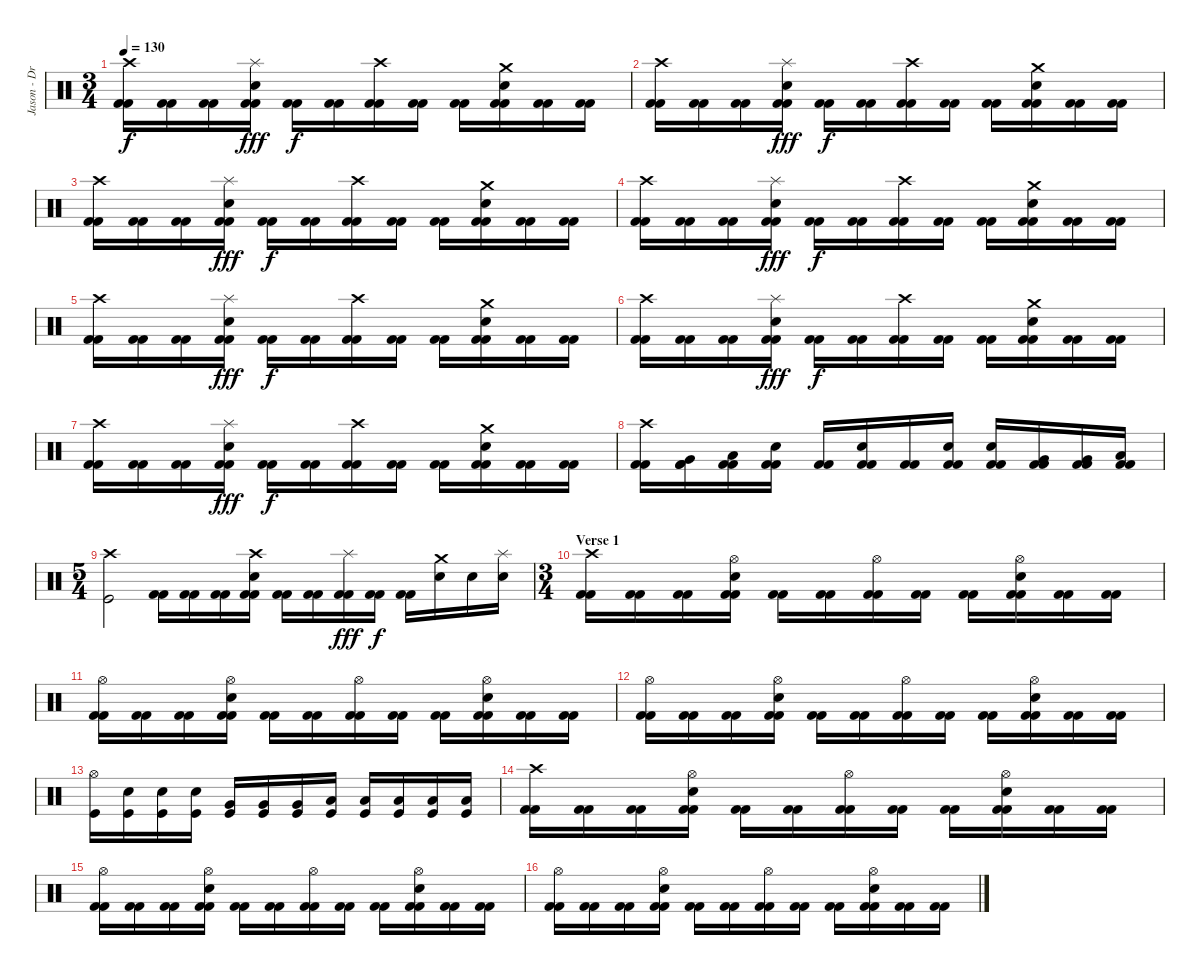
\track ("Jason - Drums" "Jason - Dr") {instrument percussion}
\staff {score}
\articulation defaults
\ts (3 4)
\tempo 130
\clef neutral
\ks c
("Crash high (hit)" "Kick (hit) 2" "Kick (hit) 2").16{dy f} ("Kick (hit) 2" "Kick (hit) 2").16 ("Kick (hit) 2" "Kick (hit) 2").16 ("Splash (hit)" "Electric Snare (hit)" "Kick (hit) 2" "Kick (hit) 2").16{dy fff} ("Kick (hit) 2" "Kick (hit) 2").16{dy f} ("Kick (hit) 2" "Kick (hit) 2").16 ("Crash high (hit)" "Kick (hit) 2" "Kick (hit) 2").16 ("Kick (hit) 2" "Kick (hit) 2").16 ("Kick (hit) 2" "Kick (hit) 2").16 ("Crash medium (hit)" "Electric Snare (hit)" "Kick (hit) 2" "Kick (hit) 2").16 ("Kick (hit) 2" "Kick (hit) 2").16 ("Kick (hit) 2" "Kick (hit) 2").16 |
("Crash high (hit)" "Kick (hit) 2" "Kick (hit) 2").16 ("Kick (hit) 2" "Kick (hit) 2").16 ("Kick (hit) 2" "Kick (hit) 2").16 ("Splash (hit)" "Electric Snare (hit)" "Kick (hit) 2" "Kick (hit) 2").16{dy fff} ("Kick (hit) 2" "Kick (hit) 2").16{dy f} ("Kick (hit) 2" "Kick (hit) 2").16 ("Crash high (hit)" "Kick (hit) 2" "Kick (hit) 2").16 ("Kick (hit) 2" "Kick (hit) 2").16 ("Kick (hit) 2" "Kick (hit) 2").16 ("Crash medium (hit)" "Electric Snare (hit)" "Kick (hit) 2" "Kick (hit) 2").16 ("Kick (hit) 2" "Kick (hit) 2").16 ("Kick (hit) 2" "Kick (hit) 2").16 |
("Crash high (hit)" "Kick (hit) 2" "Kick (hit) 2").16 ("Kick (hit) 2" "Kick (hit) 2").16 ("Kick (hit) 2" "Kick (hit) 2").16 ("Splash (hit)" "Electric Snare (hit)" "Kick (hit) 2" "Kick (hit) 2").16{dy fff} ("Kick (hit) 2" "Kick (hit) 2").16{dy f} ("Kick (hit) 2" "Kick (hit) 2").16 ("Crash high (hit)" "Kick (hit) 2" "Kick (hit) 2").16 ("Kick (hit) 2" "Kick (hit) 2").16 ("Kick (hit) 2" "Kick (hit) 2").16 ("Crash medium (hit)" "Electric Snare (hit)" "Kick (hit) 2" "Kick (hit) 2").16 ("Kick (hit) 2" "Kick (hit) 2").16 ("Kick (hit) 2" "Kick (hit) 2").16 |
("Crash high (hit)" "Kick (hit) 2" "Kick (hit) 2").16 ("Kick (hit) 2" "Kick (hit) 2").16 ("Kick (hit) 2" "Kick (hit) 2").16 ("Splash (hit)" "Electric Snare (hit)" "Kick (hit) 2" "Kick (hit) 2").16{dy fff} ("Kick (hit) 2" "Kick (hit) 2").16{dy f} ("Kick (hit) 2" "Kick (hit) 2").16 ("Crash high (hit)" "Kick (hit) 2" "Kick (hit) 2").16 ("Kick (hit) 2" "Kick (hit) 2").16 ("Kick (hit) 2" "Kick (hit) 2").16 ("Crash medium (hit)" "Electric Snare (hit)" "Kick (hit) 2" "Kick (hit) 2").16 ("Kick (hit) 2" "Kick (hit) 2").16 ("Kick (hit) 2" "Kick (hit) 2").16 |
("Crash high (hit)" "Kick (hit) 2" "Kick (hit) 2").16 ("Kick (hit) 2" "Kick (hit) 2").16 ("Kick (hit) 2" "Kick (hit) 2").16 ("Splash (hit)" "Electric Snare (hit)" "Kick (hit) 2" "Kick (hit) 2").16{dy fff} ("Kick (hit) 2" "Kick (hit) 2").16{dy f} ("Kick (hit) 2" "Kick (hit) 2").16 ("Crash high (hit)" "Kick (hit) 2" "Kick (hit) 2").16 ("Kick (hit) 2" "Kick (hit) 2").16 ("Kick (hit) 2" "Kick (hit) 2").16 ("Crash medium (hit)" "Electric Snare (hit)" "Kick (hit) 2" "Kick (hit) 2").16 ("Kick (hit) 2" "Kick (hit) 2").16 ("Kick (hit) 2" "Kick (hit) 2").16 |
("Crash high (hit)" "Kick (hit) 2" "Kick (hit) 2").16 ("Kick (hit) 2" "Kick (hit) 2").16 ("Kick (hit) 2" "Kick (hit) 2").16 ("Splash (hit)" "Electric Snare (hit)" "Kick (hit) 2" "Kick (hit) 2").16{dy fff} ("Kick (hit) 2" "Kick (hit) 2").16{dy f} ("Kick (hit) 2" "Kick (hit) 2").16 ("Crash high (hit)" "Kick (hit) 2" "Kick (hit) 2").16 ("Kick (hit) 2" "Kick (hit) 2").16 ("Kick (hit) 2" "Kick (hit) 2").16 ("Crash medium (hit)" "Electric Snare (hit)" "Kick (hit) 2" "Kick (hit) 2").16 ("Kick (hit) 2" "Kick (hit) 2").16 ("Kick (hit) 2" "Kick (hit) 2").16 |
("Crash high (hit)" "Kick (hit) 2" "Kick (hit) 2").16 ("Kick (hit) 2" "Kick (hit) 2").16 ("Kick (hit) 2" "Kick (hit) 2").16 ("Splash (hit)" "Electric Snare (hit)" "Kick (hit) 2" "Kick (hit) 2").16{dy fff} ("Kick (hit) 2" "Kick (hit) 2").16{dy f} ("Kick (hit) 2" "Kick (hit) 2").16 ("Crash high (hit)" "Kick (hit) 2" "Kick (hit) 2").16 ("Kick (hit) 2" "Kick (hit) 2").16 ("Kick (hit) 2" "Kick (hit) 2").16 ("Crash medium (hit)" "Electric Snare (hit)" "Kick (hit) 2" "Kick (hit) 2").16 ("Kick (hit) 2" "Kick (hit) 2").16 ("Kick (hit) 2" "Kick (hit) 2").16 |
("Crash high (hit)" "Kick (hit) 2" "Kick (hit) 2").16 ("Very Low Tom (hit)" "Kick (hit) 2" "Kick (hit) 2").16 ("Low Floor Tom (hit)" "Kick (hit) 2" "Kick (hit) 2").16 ("Electric Snare (hit)" "Kick (hit) 2" "Kick (hit) 2").16 ("Kick (hit) 2" "Kick (hit) 2").16 ("Electric Snare (hit)" "Kick (hit) 2" "Kick (hit) 2").16 ("Kick (hit) 2" "Kick (hit) 2").16 ("Electric Snare (hit)" "Kick (hit) 2" "Kick (hit) 2").16 ("Electric Snare (hit)" "Kick (hit) 2" "Kick (hit) 2").16 ("Very Low Tom (hit)" "Kick (hit) 2" "Kick (hit) 2").16 ("Very Low Tom (hit)" "Kick (hit) 2" "Kick (hit) 2").16 ("Low Floor Tom (hit)" "Kick (hit) 2" "Kick (hit) 2").16 |
\ts (5 4)
("Crash high (hit)" "Kick (hit)").2 ("Kick (hit) 2" "Kick (hit) 2").16 ("Kick (hit) 2" "Kick (hit) 2").16 ("Kick (hit) 2" "Kick (hit) 2").16 ("Crash high (hit)" "Electric Snare (hit)" "Kick (hit) 2" "Kick (hit) 2").16 ("Kick (hit) 2" "Kick (hit) 2").16 ("Kick (hit) 2" "Kick (hit) 2").16 ("Splash (hit)" "Kick (hit) 2" "Kick (hit) 2").16{dy fff} ("Kick (hit) 2" "Kick (hit) 2").16{dy f} ("Kick (hit) 2" "Kick (hit) 2").16 ("Crash medium (hit)" "Electric Snare (hit)").16 "Electric Snare (hit)".16 ("Splash (hit)" "Electric Snare (hit)").16 |
\ts (3 4)
\section ("" "Verse 1")
("Crash high (hit)" "Kick (hit) 2" "Kick (hit) 2").16 ("Kick (hit) 2" "Kick (hit) 2").16 ("Kick (hit) 2" "Kick (hit) 2").16 ("Hi-Hat (open)" "Electric Snare (hit)" "Kick (hit) 2" "Kick (hit) 2").16 ("Kick (hit) 2" "Kick (hit) 2").16 ("Kick (hit) 2" "Kick (hit) 2").16 ("Hi-Hat (open)" "Kick (hit) 2" "Kick (hit) 2").16 ("Kick (hit) 2" "Kick (hit) 2").16 ("Kick (hit) 2" "Kick (hit) 2").16 ("Hi-Hat (open)" "Electric Snare (hit)" "Kick (hit) 2" "Kick (hit) 2").16 ("Kick (hit) 2" "Kick (hit) 2").16 ("Kick (hit) 2" "Kick (hit) 2").16 |
("Hi-Hat (open)" "Kick (hit) 2" "Kick (hit) 2").16 ("Kick (hit) 2" "Kick (hit) 2").16 ("Kick (hit) 2" "Kick (hit) 2").16 ("Hi-Hat (open)" "Electric Snare (hit)" "Kick (hit) 2" "Kick (hit) 2").16 ("Kick (hit) 2" "Kick (hit) 2").16 ("Kick (hit) 2" "Kick (hit) 2").16 ("Hi-Hat (open)" "Kick (hit) 2" "Kick (hit) 2").16 ("Kick (hit) 2" "Kick (hit) 2").16 ("Kick (hit) 2" "Kick (hit) 2").16 ("Hi-Hat (open)" "Electric Snare (hit)" "Kick (hit) 2" "Kick (hit) 2").16 ("Kick (hit) 2" "Kick (hit) 2").16 ("Kick (hit) 2" "Kick (hit) 2").16 |
("Hi-Hat (open)" "Kick (hit) 2" "Kick (hit) 2").16 ("Kick (hit) 2" "Kick (hit) 2").16 ("Kick (hit) 2" "Kick (hit) 2").16 ("Hi-Hat (open)" "Electric Snare (hit)" "Kick (hit) 2" "Kick (hit) 2").16 ("Kick (hit) 2" "Kick (hit) 2").16 ("Kick (hit) 2" "Kick (hit) 2").16 ("Hi-Hat (open)" "Kick (hit) 2" "Kick (hit) 2").16 ("Kick (hit) 2" "Kick (hit) 2").16 ("Kick (hit) 2" "Kick (hit) 2").16 ("Hi-Hat (open)" "Electric Snare (hit)" "Kick (hit) 2" "Kick (hit) 2").16 ("Kick (hit) 2" "Kick (hit) 2").16 ("Kick (hit) 2" "Kick (hit) 2").16 |
("Hi-Hat (open)" "Kick (hit)").16 ("Electric Snare (hit)" "Kick (hit)").16 ("Electric Snare (hit)" "Kick (hit)").16 ("Electric Snare (hit)" "Kick (hit)").16 ("Very Low Tom (hit)" "Kick (hit)").16 ("Very Low Tom (hit)" "Kick (hit)").16 ("Very Low Tom (hit)" "Kick (hit)").16 ("Low Floor Tom (hit)" "Kick (hit)").16 ("Low Floor Tom (hit)" "Kick (hit)").16 ("Low Floor Tom (hit)" "Kick (hit)").16 ("Low Floor Tom (hit)" "Kick (hit)").16 ("Low Floor Tom (hit)" "Kick (hit)").16 |
("Crash high (hit)" "Kick (hit) 2" "Kick (hit) 2").16 ("Kick (hit) 2" "Kick (hit) 2").16 ("Kick (hit) 2" "Kick (hit) 2").16 ("Hi-Hat (open)" "Electric Snare (hit)" "Kick (hit) 2" "Kick (hit) 2").16 ("Kick (hit) 2" "Kick (hit) 2").16 ("Kick (hit) 2" "Kick (hit) 2").16 ("Hi-Hat (open)" "Kick (hit) 2" "Kick (hit) 2").16 ("Kick (hit) 2" "Kick (hit) 2").16 ("Kick (hit) 2" "Kick (hit) 2").16 ("Hi-Hat (open)" "Electric Snare (hit)" "Kick (hit) 2" "Kick (hit) 2").16 ("Kick (hit) 2" "Kick (hit) 2").16 ("Kick (hit) 2" "Kick (hit) 2").16 |
("Hi-Hat (open)" "Kick (hit) 2" "Kick (hit) 2").16 ("Kick (hit) 2" "Kick (hit) 2").16 ("Kick (hit) 2" "Kick (hit) 2").16 ("Hi-Hat (open)" "Electric Snare (hit)" "Kick (hit) 2" "Kick (hit) 2").16 ("Kick (hit) 2" "Kick (hit) 2").16 ("Kick (hit) 2" "Kick (hit) 2").16 ("Hi-Hat (open)" "Kick (hit) 2" "Kick (hit) 2").16 ("Kick (hit) 2" "Kick (hit) 2").16 ("Kick (hit) 2" "Kick (hit) 2").16 ("Hi-Hat (open)" "Electric Snare (hit)" "Kick (hit) 2" "Kick (hit) 2").16 ("Kick (hit) 2" "Kick (hit) 2").16 ("Kick (hit) 2" "Kick (hit) 2").16 |
("Hi-Hat (open)" "Kick (hit) 2" "Kick (hit) 2").16 ("Kick (hit) 2" "Kick (hit) 2").16 ("Kick (hit) 2" "Kick (hit) 2").16 ("Hi-Hat (open)" "Electric Snare (hit)" "Kick (hit) 2" "Kick (hit) 2").16 ("Kick (hit) 2" "Kick (hit) 2").16 ("Kick (hit) 2" "Kick (hit) 2").16 ("Hi-Hat (open)" "Kick (hit) 2" "Kick (hit) 2").16 ("Kick (hit) 2" "Kick (hit) 2").16 ("Kick (hit) 2" "Kick (hit) 2").16 ("Hi-Hat (open)" "Electric Snare (hit)" "Kick (hit) 2" "Kick (hit) 2").16 ("Kick (hit) 2" "Kick (hit) 2").16 ("Kick (hit) 2" "Kick (hit) 2").16
